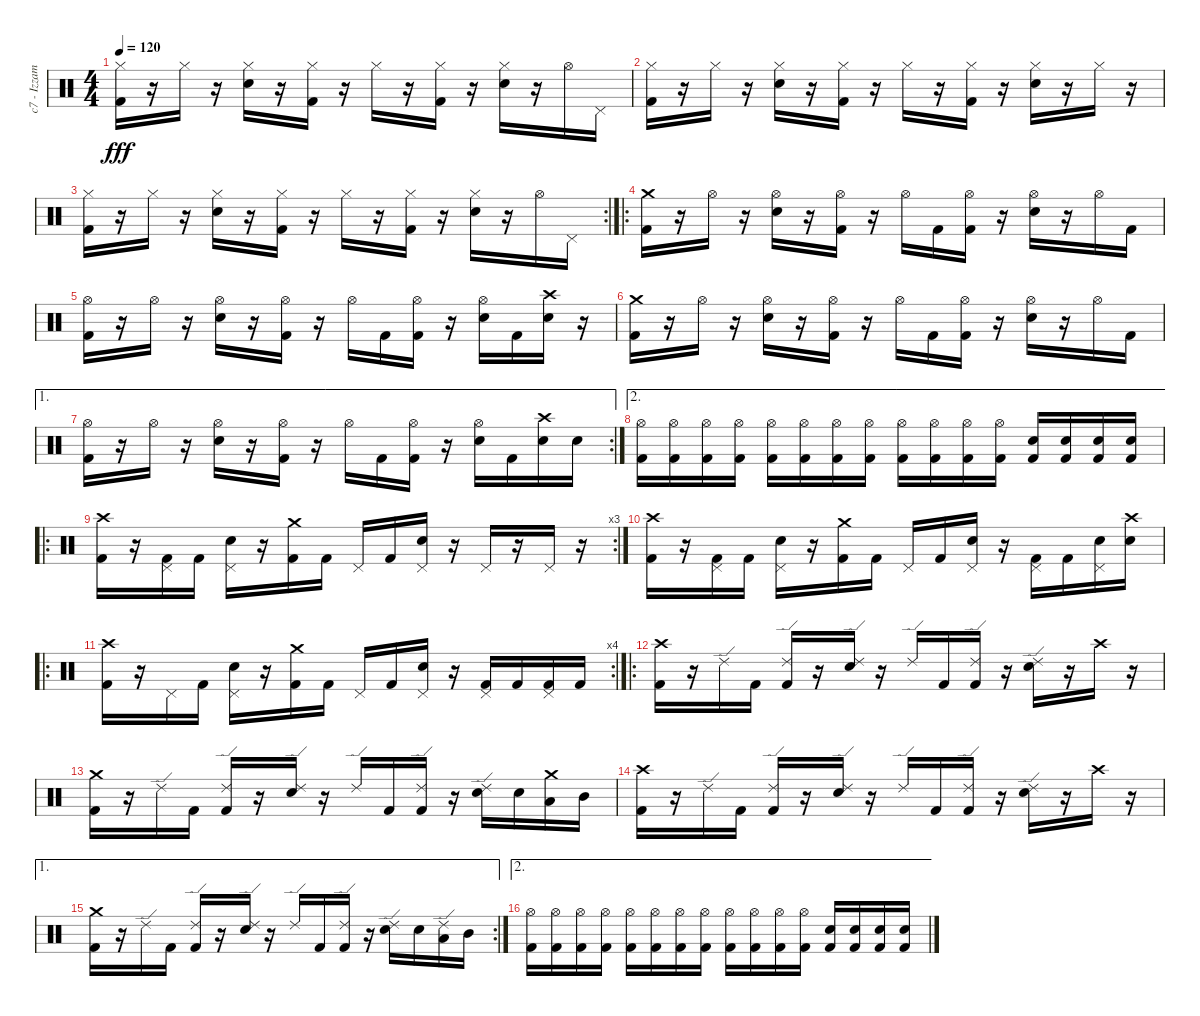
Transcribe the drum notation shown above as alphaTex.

\track ("c7 - Izzam - Drums" "c7 - Izzam") {instrument percussion}
\staff {score}
\articulation defaults
\ts (4 4)
\tempo 120
\clef neutral
\ks c
("Hi-Hat (closed)" "Kick (hit) 2").16{dy fff} r.16 "Hi-Hat (closed)".16 r.16 ("Hi-Hat (closed)" "Electric Snare (hit)").16 r.16 ("Hi-Hat (closed)" "Kick (hit) 2").16 r.16 "Hi-Hat (closed)".16 r.16 ("Hi-Hat (closed)" "Kick (hit) 2").16 r.16 ("Hi-Hat (closed)" "Electric Snare (hit)").16 r.16 "Hi-Hat (open)".16 "Pedal Hi-Hat (hit)".16 |
("Hi-Hat (closed)" "Kick (hit) 2").16 r.16 "Hi-Hat (closed)".16 r.16 ("Hi-Hat (closed)" "Electric Snare (hit)").16 r.16 ("Hi-Hat (closed)" "Kick (hit) 2").16 r.16 "Hi-Hat (closed)".16 r.16 ("Hi-Hat (closed)" "Kick (hit) 2").16 r.16 ("Hi-Hat (closed)" "Electric Snare (hit)").16 r.16 "Hi-Hat (closed)".16 r.16 |
\rc 2
("Hi-Hat (closed)" "Kick (hit) 2").16 r.16 "Hi-Hat (closed)".16 r.16 ("Hi-Hat (closed)" "Electric Snare (hit)").16 r.16 ("Hi-Hat (closed)" "Kick (hit) 2").16 r.16 "Hi-Hat (closed)".16 r.16 ("Hi-Hat (closed)" "Kick (hit) 2").16 r.16 ("Hi-Hat (closed)" "Electric Snare (hit)").16 r.16 "Hi-Hat (open)".16 "Pedal Hi-Hat (hit)".16 |
\ro
("Crash medium (hit)" "Kick (hit) 2").16 r.16 "Hi-Hat (open)".16 r.16 ("Hi-Hat (open)" "Electric Snare (hit)").16 r.16 ("Hi-Hat (open)" "Kick (hit) 2").16 r.16 "Hi-Hat (open)".16 "Kick (hit) 2".16 ("Hi-Hat (open)" "Kick (hit) 2").16 r.16 ("Hi-Hat (open)" "Electric Snare (hit)").16 r.16 "Hi-Hat (open)".16 "Kick (hit) 2".16 |
("Hi-Hat (open)" "Kick (hit) 2").16 r.16 "Hi-Hat (open)".16 r.16 ("Hi-Hat (open)" "Electric Snare (hit)").16 r.16 ("Hi-Hat (open)" "Kick (hit) 2").16 r.16 "Hi-Hat (open)".16 "Kick (hit) 2".16 ("Hi-Hat (open)" "Kick (hit) 2").16 r.16 ("Hi-Hat (open)" "Electric Snare (hit)").16 "Kick (hit) 2".16 ("Crash high (hit)" "Electric Snare (hit)").16 r.16 |
("Crash medium (hit)" "Kick (hit) 2").16 r.16 "Hi-Hat (open)".16 r.16 ("Hi-Hat (open)" "Electric Snare (hit)").16 r.16 ("Hi-Hat (open)" "Kick (hit) 2").16 r.16 "Hi-Hat (open)".16 "Kick (hit) 2".16 ("Hi-Hat (open)" "Kick (hit) 2").16 r.16 ("Hi-Hat (open)" "Electric Snare (hit)").16 r.16 "Hi-Hat (open)".16 "Kick (hit) 2".16 |
\ae 1
\rc 2
("Hi-Hat (open)" "Kick (hit) 2").16 r.16 "Hi-Hat (open)".16 r.16 ("Hi-Hat (open)" "Electric Snare (hit)").16 r.16 ("Hi-Hat (open)" "Kick (hit) 2").16 r.16 "Hi-Hat (open)".16 "Kick (hit) 2".16 ("Hi-Hat (open)" "Kick (hit) 2").16 r.16 ("Hi-Hat (open)" "Electric Snare (hit)").16 "Kick (hit) 2".16 ("Crash high (hit)" "Electric Snare (hit)").16 "Electric Snare (hit)".16 |
\ae 2
("Hi-Hat (open)" "Kick (hit) 2").16 ("Hi-Hat (open)" "Kick (hit) 2").16 ("Hi-Hat (open)" "Kick (hit) 2").16 ("Hi-Hat (open)" "Kick (hit) 2").16 ("Hi-Hat (open)" "Kick (hit) 2").16 ("Hi-Hat (open)" "Kick (hit) 2").16 ("Hi-Hat (open)" "Kick (hit) 2").16 ("Hi-Hat (open)" "Kick (hit) 2").16 ("Hi-Hat (open)" "Kick (hit) 2").16 ("Hi-Hat (open)" "Kick (hit) 2").16 ("Hi-Hat (open)" "Kick (hit) 2").16 ("Hi-Hat (open)" "Kick (hit) 2").16 ("Electric Snare (hit)" "Kick (hit) 2").16 ("Electric Snare (hit)" "Kick (hit) 2").16 ("Electric Snare (hit)" "Kick (hit) 2").16 ("Electric Snare (hit)" "Kick (hit) 2").16 |
\ro
\rc 3
("Crash high (hit)" "Kick (hit) 2").16 r.16 ("Pedal Hi-Hat (hit)" "Kick (hit) 2").16 "Kick (hit) 2".16 ("Pedal Hi-Hat (hit)" "Electric Snare (hit)").16 r.16 ("Crash medium (hit)" "Kick (hit) 2").16 "Kick (hit) 2".16 "Pedal Hi-Hat (hit)".16 "Kick (hit) 2".16 ("Pedal Hi-Hat (hit)" "Electric Snare (hit)").16 r.16 "Pedal Hi-Hat (hit)".16 r.16 "Pedal Hi-Hat (hit)".16 r.16 |
("Crash high (hit)" "Kick (hit) 2").16 r.16 ("Pedal Hi-Hat (hit)" "Kick (hit) 2").16 "Kick (hit) 2".16 ("Pedal Hi-Hat (hit)" "Electric Snare (hit)").16 r.16 ("Crash medium (hit)" "Kick (hit) 2").16 "Kick (hit) 2".16 "Pedal Hi-Hat (hit)".16 "Kick (hit) 2".16 ("Pedal Hi-Hat (hit)" "Electric Snare (hit)").16 r.16 ("Pedal Hi-Hat (hit)" "Kick (hit) 2").16 "Kick (hit) 2".16 ("Pedal Hi-Hat (hit)" "Electric Snare (hit)").16 ("Crash high (hit)" "Electric Snare (hit)").16 |
\ro
\rc 4
("Crash high (hit)" "Kick (hit) 2").16 r.16 "Pedal Hi-Hat (hit)".16 "Kick (hit) 2".16 ("Pedal Hi-Hat (hit)" "Electric Snare (hit)").16 r.16 ("Crash medium (hit)" "Kick (hit) 2").16 "Kick (hit) 2".16 "Pedal Hi-Hat (hit)".16 "Kick (hit) 2".16 ("Pedal Hi-Hat (hit)" "Electric Snare (hit)").16 r.16 ("Pedal Hi-Hat (hit)" "Kick (hit) 2").16 "Kick (hit) 2".16 ("Pedal Hi-Hat (hit)" "Kick (hit) 2").16 "Kick (hit) 2".16 |
\ro
("Crash high (hit)" "Kick (hit) 2").16 r.16 "Ride (edge) 2".16 "Kick (hit) 2".16 ("Ride (edge) 2" "Kick (hit) 2").16 r.16 ("Ride (edge) 2" "Electric Snare (hit)").16 r.16 "Ride (edge) 2".16 "Kick (hit) 2".16 ("Ride (edge) 2" "Kick (hit) 2").16 r.16 ("Ride (edge) 2" "Electric Snare (hit)").16 r.16 "Crash high (hit)".16 r.16 |
("Crash medium (hit)" "Kick (hit) 2").16 r.16 "Ride (edge) 2".16 "Kick (hit) 2".16 ("Ride (edge) 2" "Kick (hit) 2").16 r.16 ("Ride (edge) 2" "Electric Snare (hit)").16 r.16 "Ride (edge) 2".16 "Kick (hit) 2".16 ("Ride (edge) 2" "Kick (hit) 2").16 r.16 ("Ride (edge) 2" "Electric Snare (hit)").16 "Electric Snare (hit)".16 ("Crash medium (hit)" "Low Tom (hit)").16 "Mid Tom (hit)".16 |
("Crash high (hit)" "Kick (hit) 2").16 r.16 "Ride (edge) 2".16 "Kick (hit) 2".16 ("Ride (edge) 2" "Kick (hit) 2").16 r.16 ("Ride (edge) 2" "Electric Snare (hit)").16 r.16 "Ride (edge) 2".16 "Kick (hit) 2".16 ("Ride (edge) 2" "Kick (hit) 2").16 r.16 ("Ride (edge) 2" "Electric Snare (hit)").16 r.16 "Crash high (hit)".16 r.16 |
\ae 1
\rc 2
("Crash medium (hit)" "Kick (hit) 2").16 r.16 "Ride (edge) 2".16 "Kick (hit) 2".16 ("Ride (edge) 2" "Kick (hit) 2").16 r.16 ("Ride (edge) 2" "Electric Snare (hit)").16 r.16 "Ride (edge) 2".16 "Kick (hit) 2".16 ("Ride (edge) 2" "Kick (hit) 2").16 r.16 ("Ride (edge) 2" "Electric Snare (hit)").16 "Electric Snare (hit)".16 ("Ride (edge) 2" "Low Tom (hit)").16 "Mid Tom (hit)".16 |
\ae 2
("Hi-Hat (open)" "Kick (hit) 2").16 ("Hi-Hat (open)" "Kick (hit) 2").16 ("Hi-Hat (open)" "Kick (hit) 2").16 ("Hi-Hat (open)" "Kick (hit) 2").16 ("Hi-Hat (open)" "Kick (hit) 2").16 ("Hi-Hat (open)" "Kick (hit) 2").16 ("Hi-Hat (open)" "Kick (hit) 2").16 ("Hi-Hat (open)" "Kick (hit) 2").16 ("Hi-Hat (open)" "Kick (hit) 2").16 ("Hi-Hat (open)" "Kick (hit) 2").16 ("Hi-Hat (open)" "Kick (hit) 2").16 ("Hi-Hat (open)" "Kick (hit) 2").16 ("Electric Snare (hit)" "Kick (hit) 2").16 ("Electric Snare (hit)" "Kick (hit) 2").16 ("Electric Snare (hit)" "Kick (hit) 2").16 ("Electric Snare (hit)" "Kick (hit) 2").16
